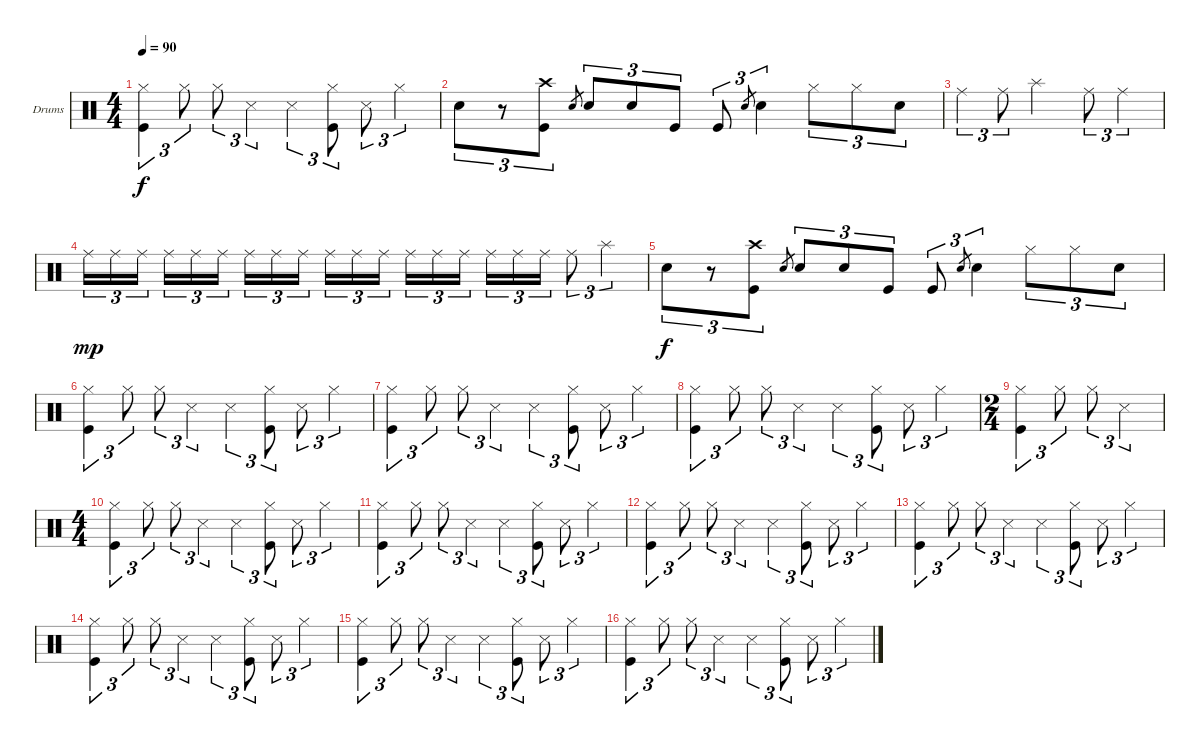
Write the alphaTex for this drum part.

\defaultSystemsLayout 4
\bracketExtendMode groupsimilarinstruments
\firstSystemTrackNameOrientation horizontal
\otherSystemsTrackNameOrientation horizontal
\track ("Drumkit" "Drums") {instrument percussion}
\staff {score}
\articulation defaults
\ts (4 4)
\tempo 90
\clef neutral
\ks c
("Hi-Hat (closed)" "Kick (hit)").4{tu (3 2) dy f} "Hi-Hat (closed)".8{tu (3 2)} "Hi-Hat (closed)".8{tu (3 2)} "Snare (side stick) 3".4{tu (3 2)} "Snare (side stick) 3".4{tu (3 2)} ("Kick (hit)" "Hi-Hat (closed)").8{tu (3 2)} "Snare (side stick) 3".8{tu (3 2)} "Hi-Hat (closed)".4{tu (3 2)} |
"Snare (hit) 2".8{tu (3 2)} r.8{tu (3 2)} ("Crash high (hit)" "Kick (hit)").8{tu (3 2)} "Snare (hit) 2".8{gr} "Snare (hit) 2".8{tu (3 2)} "Snare (hit) 2".8{tu (3 2)} "Kick (hit)".8{tu (3 2)} "Kick (hit)".8{tu (3 2)} "Snare (hit) 2".8{tu (3 2) gr} "Snare (hit) 2".4{tu (3 2)} "Hi-Hat (closed)".8{tu (3 2)} "Hi-Hat (closed)".8{tu (3 2)} "Snare (hit) 2".8{tu (3 2)} |
"Ride (middle)".4{tu (3 2)} "Ride (middle)".8{tu (3 2)} "Splash (hit)".2 "Ride (middle)".8{tu (3 2)} "Ride (middle)".4{tu (3 2)} |
"Ride (middle)".16{tu (3 2) dy mp} "Ride (middle)".16{tu (3 2)} "Ride (middle)".16{tu (3 2)} "Ride (middle)".16{tu (3 2)} "Ride (middle)".16{tu (3 2)} "Ride (middle)".16{tu (3 2)} "Ride (middle)".16{tu (3 2)} "Ride (middle)".16{tu (3 2)} "Ride (middle)".16{tu (3 2)} "Ride (middle)".16{tu (3 2)} "Ride (middle)".16{tu (3 2)} "Ride (middle)".16{tu (3 2)} "Ride (middle)".16{tu (3 2)} "Ride (middle)".16{tu (3 2)} "Ride (middle)".16{tu (3 2)} "Ride (middle)".16{tu (3 2)} "Ride (middle)".16{tu (3 2)} "Ride (middle)".16{tu (3 2)} "Ride (middle)".8{tu (3 2)} "Splash (hit)".4{tu (3 2)} |
"Snare (hit) 2".8{tu (3 2) dy f} r.8{tu (3 2)} ("Crash high (hit)" "Kick (hit)").8{tu (3 2)} "Snare (hit) 2".8{gr} "Snare (hit) 2".8{tu (3 2)} "Snare (hit) 2".8{tu (3 2)} "Kick (hit)".8{tu (3 2)} "Kick (hit)".8{tu (3 2)} "Snare (hit) 2".8{tu (3 2) gr} "Snare (hit) 2".4{tu (3 2)} "Hi-Hat (closed)".8{tu (3 2)} "Hi-Hat (closed)".8{tu (3 2)} "Snare (hit) 2".8{tu (3 2)} |
("Hi-Hat (closed)" "Kick (hit)").4{tu (3 2)} "Hi-Hat (closed)".8{tu (3 2)} "Hi-Hat (closed)".8{tu (3 2)} "Snare (side stick) 3".4{tu (3 2)} "Snare (side stick) 3".4{tu (3 2)} ("Kick (hit)" "Hi-Hat (closed)").8{tu (3 2)} "Snare (side stick) 3".8{tu (3 2)} "Hi-Hat (closed)".4{tu (3 2)} |
("Hi-Hat (closed)" "Kick (hit)").4{tu (3 2)} "Hi-Hat (closed)".8{tu (3 2)} "Hi-Hat (closed)".8{tu (3 2)} "Snare (side stick) 3".4{tu (3 2)} "Snare (side stick) 3".4{tu (3 2)} ("Kick (hit)" "Hi-Hat (closed)").8{tu (3 2)} "Snare (side stick) 3".8{tu (3 2)} "Hi-Hat (closed)".4{tu (3 2)} |
("Hi-Hat (closed)" "Kick (hit)").4{tu (3 2)} "Hi-Hat (closed)".8{tu (3 2)} "Hi-Hat (closed)".8{tu (3 2)} "Snare (side stick) 3".4{tu (3 2)} "Snare (side stick) 3".4{tu (3 2)} ("Kick (hit)" "Hi-Hat (closed)").8{tu (3 2)} "Snare (side stick) 3".8{tu (3 2)} "Hi-Hat (closed)".4{tu (3 2)} |
\ts (2 4)
("Hi-Hat (closed)" "Kick (hit)").4{tu (3 2)} "Hi-Hat (closed)".8{tu (3 2)} "Hi-Hat (closed)".8{tu (3 2)} "Snare (side stick) 3".4{tu (3 2)} |
\ts (4 4)
("Hi-Hat (closed)" "Kick (hit)").4{tu (3 2)} "Hi-Hat (closed)".8{tu (3 2)} "Hi-Hat (closed)".8{tu (3 2)} "Snare (side stick) 3".4{tu (3 2)} "Snare (side stick) 3".4{tu (3 2)} ("Kick (hit)" "Hi-Hat (closed)").8{tu (3 2)} "Snare (side stick) 3".8{tu (3 2)} "Hi-Hat (closed)".4{tu (3 2)} |
("Hi-Hat (closed)" "Kick (hit)").4{tu (3 2)} "Hi-Hat (closed)".8{tu (3 2)} "Hi-Hat (closed)".8{tu (3 2)} "Snare (side stick) 3".4{tu (3 2)} "Snare (side stick) 3".4{tu (3 2)} ("Kick (hit)" "Hi-Hat (closed)").8{tu (3 2)} "Snare (side stick) 3".8{tu (3 2)} "Hi-Hat (closed)".4{tu (3 2)} |
("Hi-Hat (closed)" "Kick (hit)").4{tu (3 2)} "Hi-Hat (closed)".8{tu (3 2)} "Hi-Hat (closed)".8{tu (3 2)} "Snare (side stick) 3".4{tu (3 2)} "Snare (side stick) 3".4{tu (3 2)} ("Kick (hit)" "Hi-Hat (closed)").8{tu (3 2)} "Snare (side stick) 3".8{tu (3 2)} "Hi-Hat (closed)".4{tu (3 2)} |
("Hi-Hat (closed)" "Kick (hit)").4{tu (3 2)} "Hi-Hat (closed)".8{tu (3 2)} "Hi-Hat (closed)".8{tu (3 2)} "Snare (side stick) 3".4{tu (3 2)} "Snare (side stick) 3".4{tu (3 2)} ("Kick (hit)" "Hi-Hat (closed)").8{tu (3 2)} "Snare (side stick) 3".8{tu (3 2)} "Hi-Hat (closed)".4{tu (3 2)} |
("Hi-Hat (closed)" "Kick (hit)").4{tu (3 2)} "Hi-Hat (closed)".8{tu (3 2)} "Hi-Hat (closed)".8{tu (3 2)} "Snare (side stick) 3".4{tu (3 2)} "Snare (side stick) 3".4{tu (3 2)} ("Kick (hit)" "Hi-Hat (closed)").8{tu (3 2)} "Snare (side stick) 3".8{tu (3 2)} "Hi-Hat (closed)".4{tu (3 2)} |
("Hi-Hat (closed)" "Kick (hit)").4{tu (3 2)} "Hi-Hat (closed)".8{tu (3 2)} "Hi-Hat (closed)".8{tu (3 2)} "Snare (side stick) 3".4{tu (3 2)} "Snare (side stick) 3".4{tu (3 2)} ("Kick (hit)" "Hi-Hat (closed)").8{tu (3 2)} "Snare (side stick) 3".8{tu (3 2)} "Hi-Hat (closed)".4{tu (3 2)} |
("Hi-Hat (closed)" "Kick (hit)").4{tu (3 2)} "Hi-Hat (closed)".8{tu (3 2)} "Hi-Hat (closed)".8{tu (3 2)} "Snare (side stick) 3".4{tu (3 2)} "Snare (side stick) 3".4{tu (3 2)} ("Kick (hit)" "Hi-Hat (closed)").8{tu (3 2)} "Snare (side stick) 3".8{tu (3 2)} "Hi-Hat (closed)".4{tu (3 2)}
